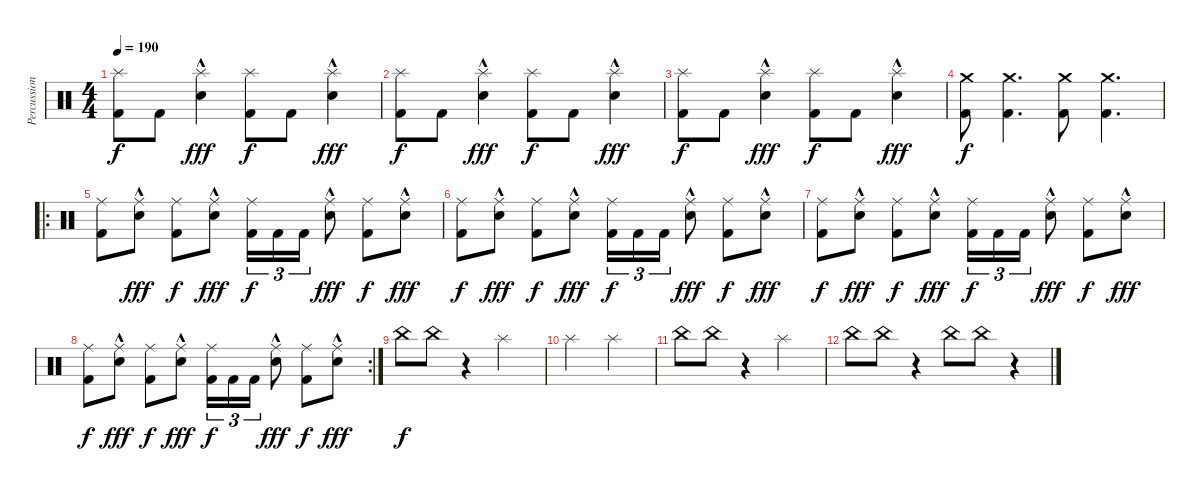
\track ("Percussion" "Percussion") {instrument percussion}
\staff {score}
\articulation defaults
\ts (4 4)
\tempo 190
\clef neutral
\ks c
("Splash (hit)" "Kick (hit) 2").8{dy f} "Kick (hit) 2".8 ("Splash (hit)" "Snare (hit) 2"{hac}).4{dy fff} ("Splash (hit)" "Kick (hit) 2").8{dy f} "Kick (hit) 2".8 ("Splash (hit)" "Snare (hit) 2"{hac}).4{dy fff} |
("Splash (hit)" "Kick (hit) 2").8{dy f} "Kick (hit) 2".8 ("Splash (hit)" "Snare (hit) 2"{hac}).4{dy fff} ("Splash (hit)" "Kick (hit) 2").8{dy f} "Kick (hit) 2".8 ("Splash (hit)" "Snare (hit) 2"{hac}).4{dy fff} |
("Splash (hit)" "Kick (hit) 2").8{dy f} "Kick (hit) 2".8 ("Splash (hit)" "Snare (hit) 2"{hac}).4{dy fff} ("Splash (hit)" "Kick (hit) 2").8{dy f} "Kick (hit) 2".8 ("Splash (hit)" "Snare (hit) 2"{hac}).4{dy fff} |
("Crash medium (hit)" "Kick (hit) 2").8{dy f} ("Crash medium (hit)" "Kick (hit) 2").4{d} ("Crash medium (hit)" "Kick (hit) 2").8 ("Crash medium (hit)" "Kick (hit) 2").4{d} |
\ro
("Ride (middle)" "Kick (hit) 2").8 ("Ride (middle)" "Snare (hit) 2"{hac}).8{dy fff} ("Ride (middle)" "Kick (hit) 2").8{dy f} ("Ride (middle)" "Snare (hit) 2"{hac}).8{dy fff} ("Ride (middle)" "Kick (hit) 2").16{tu (3 2) dy f} "Kick (hit) 2".16{tu (3 2)} "Kick (hit) 2".16{tu (3 2)} ("Ride (middle)" "Snare (hit) 2"{hac}).8{dy fff} ("Ride (middle)" "Kick (hit) 2").8{dy f} ("Ride (middle)" "Snare (hit) 2"{hac}).8{dy fff} |
("Ride (middle)" "Kick (hit) 2").8{dy f} ("Ride (middle)" "Snare (hit) 2"{hac}).8{dy fff} ("Ride (middle)" "Kick (hit) 2").8{dy f} ("Ride (middle)" "Snare (hit) 2"{hac}).8{dy fff} ("Ride (middle)" "Kick (hit) 2").16{tu (3 2) dy f} "Kick (hit) 2".16{tu (3 2)} "Kick (hit) 2".16{tu (3 2)} ("Ride (middle)" "Snare (hit) 2"{hac}).8{dy fff} ("Ride (middle)" "Kick (hit) 2").8{dy f} ("Ride (middle)" "Snare (hit) 2"{hac}).8{dy fff} |
("Ride (middle)" "Kick (hit) 2").8{dy f} ("Ride (middle)" "Snare (hit) 2"{hac}).8{dy fff} ("Ride (middle)" "Kick (hit) 2").8{dy f} ("Ride (middle)" "Snare (hit) 2"{hac}).8{dy fff} ("Ride (middle)" "Kick (hit) 2").16{tu (3 2) dy f} "Kick (hit) 2".16{tu (3 2)} "Kick (hit) 2".16{tu (3 2)} ("Ride (middle)" "Snare (hit) 2"{hac}).8{dy fff} ("Ride (middle)" "Kick (hit) 2").8{dy f} ("Ride (middle)" "Snare (hit) 2"{hac}).8{dy fff} |
\rc 2
("Ride (middle)" "Kick (hit) 2").8{dy f} ("Ride (middle)" "Snare (hit) 2"{hac}).8{dy fff} ("Ride (middle)" "Kick (hit) 2").8{dy f} ("Ride (middle)" "Snare (hit) 2"{hac}).8{dy fff} ("Ride (middle)" "Kick (hit) 2").16{tu (3 2) dy f} "Kick (hit) 2".16{tu (3 2)} "Kick (hit) 2".16{tu (3 2)} ("Ride (middle)" "Snare (hit) 2"{hac}).8{dy fff} ("Ride (middle)" "Kick (hit) 2").8{dy f} ("Ride (middle)" "Snare (hit) 2"{hac}).8{dy fff} |
"China (hit)".8{dy f} "China (hit)".8 r.4 "Splash (hit)".2 |
"Splash (hit)".2 "Splash (hit)".2 |
"China (hit)".8 "China (hit)".8 r.4 "Splash (hit)".2 |
"China (hit)".8 "China (hit)".8 r.4 "China (hit)".8 "China (hit)".8 r.4
